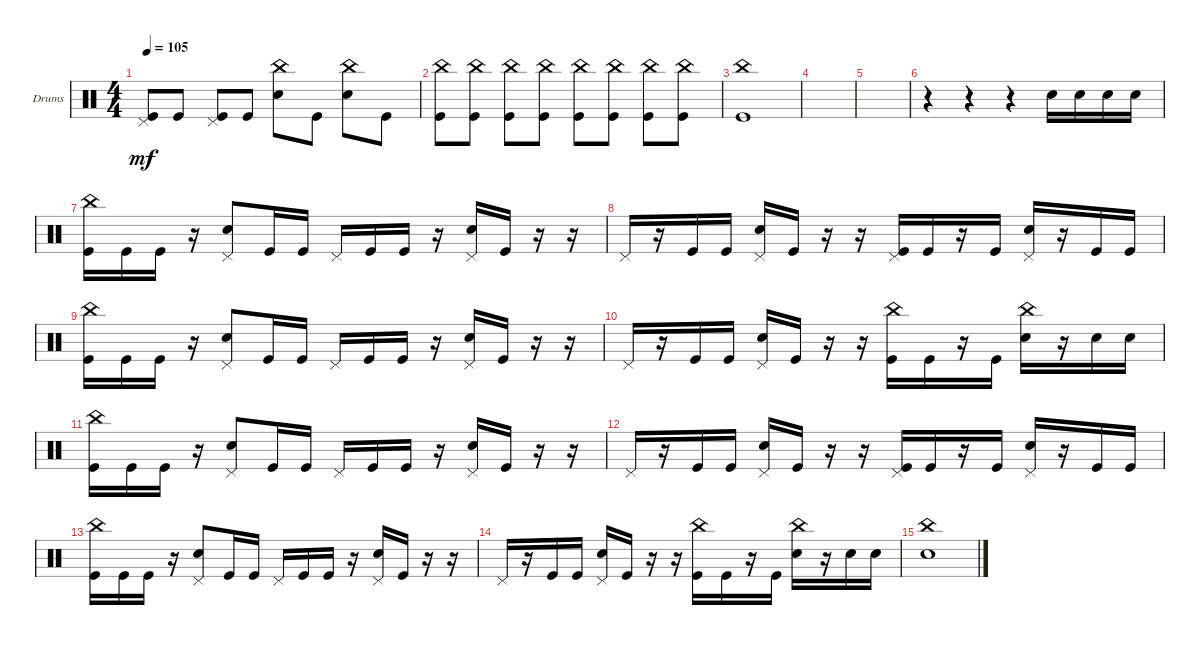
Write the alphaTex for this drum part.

\defaultSystemsLayout 4
\bracketExtendMode groupsimilarinstruments
\firstSystemTrackNameOrientation horizontal
\otherSystemsTrackNameOrientation horizontal
\track ("Drumkit" "Drums") {instrument percussion}
\staff {score}
\articulation defaults
\ts (4 4)
\tempo 105
\clef neutral
\ks c
("Kick (hit)" "Pedal Hi-Hat (hit)").8{dy mf} "Kick (hit)".8 ("Kick (hit)" "Pedal Hi-Hat (hit)").8 "Kick (hit)".8 ("Snare (hit) 2" "China (hit)").8 "Kick (hit)".8 ("China (hit)" "Snare (hit) 2").8 "Kick (hit)".8 |
("Kick (hit)" "China (hit)").8 ("China (hit)" "Kick (hit)").8 ("China (hit)" "Kick (hit)").8 ("China (hit)" "Kick (hit)").8 ("China (hit)" "Kick (hit)").8 ("China (hit)" "Kick (hit)").8 ("China (hit)" "Kick (hit)").8 ("China (hit)" "Kick (hit)").8 |
("Kick (hit)" "China (hit)").1 |
|
|
r.4 r.4 r.4 "Snare (hit) 2".16 "Snare (hit) 2".16 "Snare (hit) 2".16 "Snare (hit) 2".16 |
("Kick (hit)" "China (hit)").16 "Kick (hit)".16 "Kick (hit)".16 r.16 ("Pedal Hi-Hat (hit)" "Snare (hit) 2").8 "Kick (hit)".16 "Kick (hit)".16 "Pedal Hi-Hat (hit)".16 "Kick (hit)".16 "Kick (hit)".16 r.16 ("Pedal Hi-Hat (hit)" "Snare (hit) 2").16 "Kick (hit)".16 r.16 r.16 |
"Pedal Hi-Hat (hit)".16 r.16 "Kick (hit)".16 "Kick (hit)".16 ("Snare (hit) 2" "Pedal Hi-Hat (hit)").16 "Kick (hit)".16 r.16 r.16 ("Kick (hit)" "Pedal Hi-Hat (hit)").16 "Kick (hit)".16 r.16 "Kick (hit)".16 ("Snare (hit) 2" "Pedal Hi-Hat (hit)").16 r.16 "Kick (hit)".16 "Kick (hit)".16 |
("Kick (hit)" "China (hit)").16 "Kick (hit)".16 "Kick (hit)".16 r.16 ("Pedal Hi-Hat (hit)" "Snare (hit) 2").8 "Kick (hit)".16 "Kick (hit)".16 "Pedal Hi-Hat (hit)".16 "Kick (hit)".16 "Kick (hit)".16 r.16 ("Pedal Hi-Hat (hit)" "Snare (hit) 2").16 "Kick (hit)".16 r.16 r.16 |
"Pedal Hi-Hat (hit)".16 r.16 "Kick (hit)".16 "Kick (hit)".16 ("Snare (hit) 2" "Pedal Hi-Hat (hit)").16 "Kick (hit)".16 r.16 r.16 ("Kick (hit)" "China (hit)").16 "Kick (hit)".16 r.16 "Kick (hit)".16 ("Snare (hit) 2" "China (hit)").16 r.16 "Snare (hit) 2".16 "Snare (hit) 2".16 |
("Kick (hit)" "China (hit)").16 "Kick (hit)".16 "Kick (hit)".16 r.16 ("Pedal Hi-Hat (hit)" "Snare (hit) 2").8 "Kick (hit)".16 "Kick (hit)".16 "Pedal Hi-Hat (hit)".16 "Kick (hit)".16 "Kick (hit)".16 r.16 ("Pedal Hi-Hat (hit)" "Snare (hit) 2").16 "Kick (hit)".16 r.16 r.16 |
"Pedal Hi-Hat (hit)".16 r.16 "Kick (hit)".16 "Kick (hit)".16 ("Snare (hit) 2" "Pedal Hi-Hat (hit)").16 "Kick (hit)".16 r.16 r.16 ("Kick (hit)" "Pedal Hi-Hat (hit)").16 "Kick (hit)".16 r.16 "Kick (hit)".16 ("Snare (hit) 2" "Pedal Hi-Hat (hit)").16 r.16 "Kick (hit)".16 "Kick (hit)".16 |
("Kick (hit)" "China (hit)").16 "Kick (hit)".16 "Kick (hit)".16 r.16 ("Pedal Hi-Hat (hit)" "Snare (hit) 2").8 "Kick (hit)".16 "Kick (hit)".16 "Pedal Hi-Hat (hit)".16 "Kick (hit)".16 "Kick (hit)".16 r.16 ("Pedal Hi-Hat (hit)" "Snare (hit) 2").16 "Kick (hit)".16 r.16 r.16 |
"Pedal Hi-Hat (hit)".16 r.16 "Kick (hit)".16 "Kick (hit)".16 ("Snare (hit) 2" "Pedal Hi-Hat (hit)").16 "Kick (hit)".16 r.16 r.16 ("Kick (hit)" "China (hit)").16 "Kick (hit)".16 r.16 "Kick (hit)".16 ("Snare (hit) 2" "China (hit)").16 r.16 "Snare (hit) 2".16 "Snare (hit) 2".16 |
("Snare (hit) 2" "China (hit)").1
